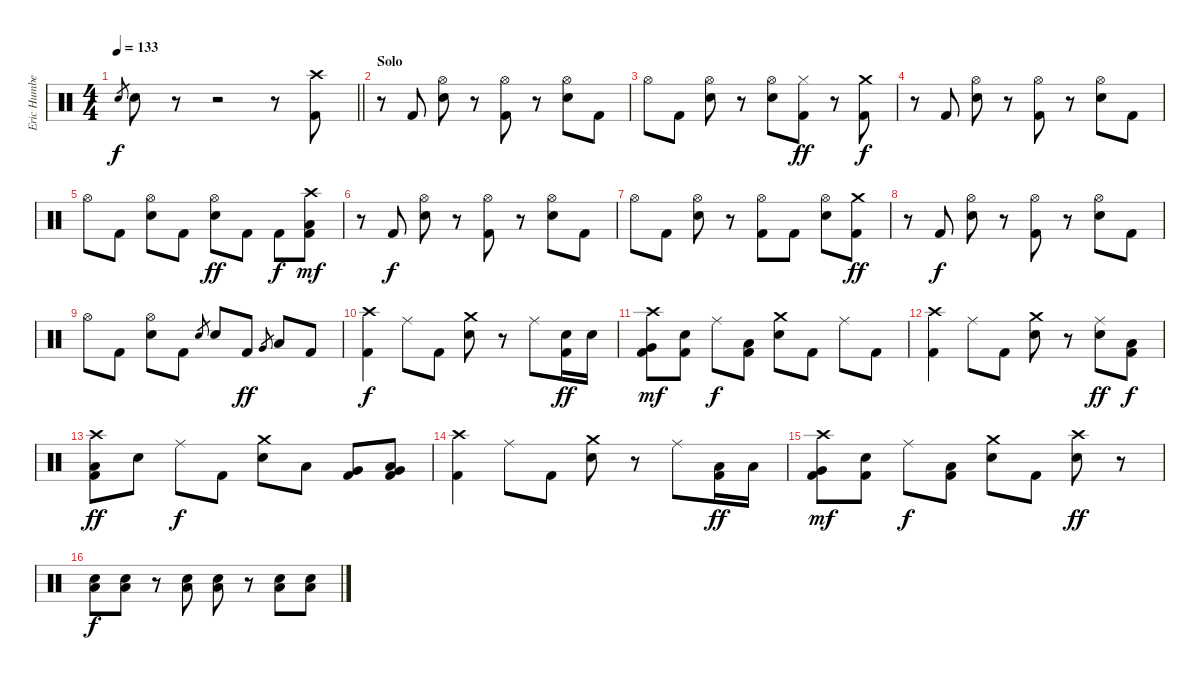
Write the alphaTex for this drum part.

\track ("Eric Humbert (Drums)" "Eric Humbe") {instrument percussion}
\staff {score}
\articulation defaults
\ts (4 4)
\tempo 133
\clef neutral
\barLineRight lightlight
\ks c "Electric Snare (hit)".8{gr dy f} "Electric Snare (hit)".8
r.8 r.2 r.8 ("Crash high (hit)" "Kick (hit) 2").8 |
\section ("" "Solo")
r.8 "Kick (hit) 2".8 ("Hi-Hat (open)" "Electric Snare (hit)").8 r.8 ("Hi-Hat (open)" "Kick (hit) 2").8 r.8 ("Hi-Hat (open)" "Electric Snare (hit)").8 "Kick (hit) 2".8 |
"Hi-Hat (open)".8 "Kick (hit) 2".8 ("Hi-Hat (open)" "Electric Snare (hit)").8 r.8 ("Hi-Hat (open)" "Electric Snare (hit)").8 ("Hi-Hat (closed)" "Kick (hit) 2").8{dy ff} r.8 ("Crash medium (hit)" "Kick (hit) 2").8{dy f} |
r.8 "Kick (hit) 2".8 ("Hi-Hat (open)" "Electric Snare (hit)").8 r.8 ("Hi-Hat (open)" "Kick (hit) 2").8 r.8 ("Hi-Hat (open)" "Electric Snare (hit)").8 "Kick (hit) 2".8 |
"Hi-Hat (open)".8 "Kick (hit) 2".8 ("Hi-Hat (open)" "Electric Snare (hit)").8 "Kick (hit) 2".8 ("Hi-Hat (open)" "Electric Snare (hit)").8{dy ff} "Kick (hit) 2".8 "Kick (hit) 2".8{dy f} ("Crash high (hit)" "Low Floor Tom (hit)" "Kick (hit) 2").8{dy mf} |
r.8 "Kick (hit) 2".8{dy f} ("Hi-Hat (open)" "Electric Snare (hit)").8 r.8 ("Hi-Hat (open)" "Kick (hit) 2").8 r.8 ("Hi-Hat (open)" "Electric Snare (hit)").8 "Kick (hit) 2".8 |
"Hi-Hat (open)".8 "Kick (hit) 2".8 ("Hi-Hat (open)" "Electric Snare (hit)").8 r.8 ("Hi-Hat (open)" "Kick (hit) 2").8 "Kick (hit) 2".8 ("Hi-Hat (open)" "Electric Snare (hit)").8 ("Crash medium (hit)" "Kick (hit) 2").8{dy ff} |
r.8 "Kick (hit) 2".8{dy f} ("Hi-Hat (open)" "Electric Snare (hit)").8 r.8 ("Hi-Hat (open)" "Kick (hit) 2").8 r.8 ("Hi-Hat (open)" "Electric Snare (hit)").8 "Kick (hit) 2".8 |
"Hi-Hat (open)".8 "Kick (hit) 2".8 ("Hi-Hat (open)" "Electric Snare (hit)").8 "Kick (hit) 2".8 "Electric Snare (hit)".8{gr} "Electric Snare (hit)".8 "Kick (hit) 2".8{dy ff} "Very Low Tom (hit)".8{gr} "Low Floor Tom (hit)".8 "Kick (hit) 2".8 |
("Crash high (hit)" "Kick (hit) 2").4{dy f} "Ride (middle)".8 "Kick (hit) 2".8 ("Crash medium (hit)" "Electric Snare (hit)").8 r.8 "Ride (middle)".8 ("Electric Snare (hit)" "Kick (hit) 2").16{dy ff} "Electric Snare (hit)".16 |
("Crash high (hit)" "Very Low Tom (hit)" "Kick (hit) 2").8{dy mf} ("Electric Snare (hit)" "Kick (hit) 2").8 "Ride (middle)".8{dy f} ("Low Floor Tom (hit)" "Kick (hit) 2").8 ("Crash medium (hit)" "Electric Snare (hit)").8 "Kick (hit) 2".8 "Ride (middle)".8 "Kick (hit) 2".8 |
("Crash high (hit)" "Kick (hit) 2").4 "Ride (middle)".8 "Kick (hit) 2".8 ("Crash medium (hit)" "Electric Snare (hit)").8 r.8 ("Ride (middle)" "Electric Snare (hit)").8{dy ff} ("Low Floor Tom (hit)" "Kick (hit) 2").8{dy f} |
("Crash high (hit)" "Low Floor Tom (hit)" "Kick (hit) 2").8{dy ff} "Electric Snare (hit)".8 "Ride (middle)".8{dy f} "Kick (hit) 2".8 ("Crash medium (hit)" "Electric Snare (hit)").8 "Low Tom (hit)".8 ("Very Low Tom (hit)" "Kick (hit) 2").8 ("Very Low Tom (hit)" "Low Floor Tom (hit)" "Kick (hit) 2").8 |
("Crash high (hit)" "Kick (hit) 2").4 "Ride (middle)".8 "Kick (hit) 2".8 ("Crash medium (hit)" "Electric Snare (hit)").8 r.8 "Ride (middle)".8 ("Low Tom (hit)" "Kick (hit) 2").16{dy ff} "Low Tom (hit)".16 |
("Crash high (hit)" "Very Low Tom (hit)" "Kick (hit) 2").8{dy mf} ("Electric Snare (hit)" "Kick (hit) 2").8 "Ride (middle)".8{dy f} ("Low Floor Tom (hit)" "Kick (hit) 2").8 ("Crash medium (hit)" "Electric Snare (hit)").8 "Kick (hit) 2".8 ("Crash high (hit)" "Electric Snare (hit)").8{dy ff} r.8 |
("Low Floor Tom (hit)" "Electric Snare (hit)").8{dy f} ("Low Floor Tom (hit)" "Electric Snare (hit)").8 r.8 ("Low Floor Tom (hit)" "Electric Snare (hit)").8 ("Low Floor Tom (hit)" "Electric Snare (hit)").8 r.8 ("Low Floor Tom (hit)" "Electric Snare (hit)").8 ("Low Floor Tom (hit)" "Electric Snare (hit)").8
